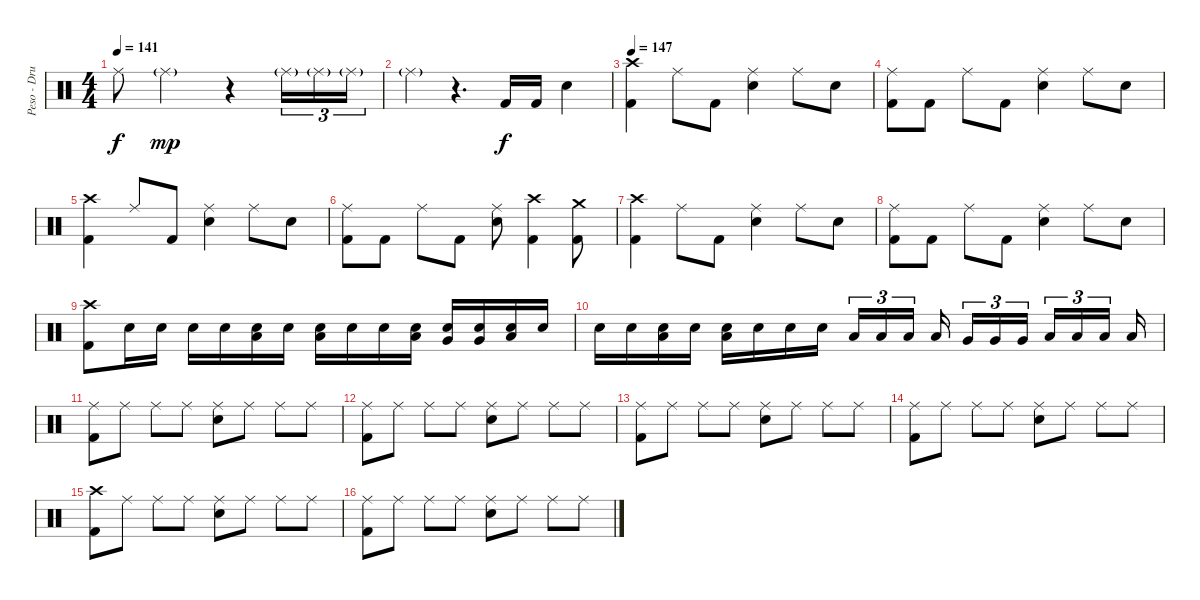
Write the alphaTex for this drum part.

\track ("Peso - Drums" "Peso - Dru") {instrument percussion}
\staff {score}
\articulation defaults
\ts (4 4)
\tempo 141
\clef neutral
\ks c "Ride (middle)"{t}.8{dy f} "Ride (middle)"{g}.2{dy mp}
r.4 "Ride (middle)"{g}.16{tu (3 2)} "Ride (middle)"{g}.16{tu (3 2)} "Ride (middle)"{g}.16{tu (3 2)} |
"Ride (middle)"{g}.4 r.4{d} "Kick (hit) 2".16{dy f} "Kick (hit) 2".16 "Electric Snare (hit)".4 |
\tempo 147
("Crash high (hit)" "Kick (hit) 2").4 "Ride (middle)".8 "Kick (hit) 2".8 ("Ride (middle)" "Electric Snare (hit)").4 "Ride (middle)".8 "Electric Snare (hit)".8 |
("Ride (middle)" "Kick (hit) 2").8 "Kick (hit) 2".8 "Ride (middle)".8 "Kick (hit) 2".8 ("Ride (middle)" "Electric Snare (hit)").4 "Ride (middle)".8 "Electric Snare (hit)".8 |
("Crash high (hit)" "Kick (hit) 2").4 "Ride (middle)".8{beam Up} "Kick (hit) 2".8{beam Up} ("Ride (middle)" "Electric Snare (hit)").4 "Ride (middle)".8 "Electric Snare (hit)".8 |
("Ride (middle)" "Kick (hit) 2").8 "Kick (hit) 2".8 "Ride (middle)".8 "Kick (hit) 2".8 ("Ride (middle)" "Electric Snare (hit)").8 ("Crash high (hit)" "Kick (hit) 2").4 ("Crash medium (hit)" "Kick (hit) 2").8 |
("Crash high (hit)" "Kick (hit) 2").4 "Ride (middle)".8 "Kick (hit) 2".8 ("Ride (middle)" "Electric Snare (hit)").4 "Ride (middle)".8 "Electric Snare (hit)".8 |
("Ride (middle)" "Kick (hit) 2").8 "Kick (hit) 2".8 "Ride (middle)".8 "Kick (hit) 2".8 ("Ride (middle)" "Electric Snare (hit)").4 "Ride (middle)".8 "Electric Snare (hit)".8 |
("Crash high (hit)" "Kick (hit) 2").8 "Electric Snare (hit)".16 "Electric Snare (hit)".16 "Electric Snare (hit)".16 "Electric Snare (hit)".16 ("Low Tom (hit)" "Electric Snare (hit)").16 "Electric Snare (hit)".16 ("Low Tom (hit)" "Electric Snare (hit)").16 "Electric Snare (hit)".16 "Electric Snare (hit)".16 ("Low Tom (hit)" "Electric Snare (hit)").16 ("Electric Snare (hit)" "Very Low Tom (hit)").16 ("Electric Snare (hit)" "Very Low Tom (hit)").16 ("Electric Snare (hit)" "Low Floor Tom (hit)").16 "Electric Snare (hit)".16 |
"Electric Snare (hit)".16 "Electric Snare (hit)".16 ("Low Tom (hit)" "Electric Snare (hit)").16 "Electric Snare (hit)".16 ("Low Tom (hit)" "Electric Snare (hit)").16 "Electric Snare (hit)".16 "Electric Snare (hit)".16 "Electric Snare (hit)".16 "Low Tom (hit)".16{tu (3 2)} "Low Tom (hit)".16{tu (3 2)} "Low Tom (hit)".16{tu (3 2) beam splitsecondary} "Low Tom (hit)".16{beam splitsecondary} "Very Low Tom (hit)".16{tu (3 2)} "Very Low Tom (hit)".16{tu (3 2)} "Very Low Tom (hit)".16{tu (3 2) beam splitsecondary} "Low Floor Tom (hit)".16{tu (3 2)} "Low Floor Tom (hit)".16{tu (3 2)} "Low Floor Tom (hit)".16{tu (3 2) beam splitsecondary} "Low Floor Tom (hit)".16 |
("Ride (middle)" "Kick (hit) 2").8 "Ride (middle)".8 "Ride (middle)".8 "Ride (middle)".8 ("Ride (middle)" "Electric Snare (hit)").8 "Ride (middle)".8 "Ride (middle)".8 "Ride (middle)".8 |
("Ride (middle)" "Kick (hit) 2").8 "Ride (middle)".8 "Ride (middle)".8 "Ride (middle)".8 ("Ride (middle)" "Electric Snare (hit)").8 "Ride (middle)".8 "Ride (middle)".8 "Ride (middle)".8 |
("Ride (middle)" "Kick (hit) 2").8 "Ride (middle)".8 "Ride (middle)".8 "Ride (middle)".8 ("Ride (middle)" "Electric Snare (hit)").8 "Ride (middle)".8 "Ride (middle)".8 "Ride (middle)".8 |
("Ride (middle)" "Kick (hit) 2").8 "Ride (middle)".8 "Ride (middle)".8 "Ride (middle)".8 ("Ride (middle)" "Electric Snare (hit)").8 "Ride (middle)".8 "Ride (middle)".8 "Ride (middle)".8 |
("Crash high (hit)" "Kick (hit) 2").8 "Ride (middle)".8 "Ride (middle)".8 "Ride (middle)".8 ("Ride (middle)" "Electric Snare (hit)").8 "Ride (middle)".8 "Ride (middle)".8 "Ride (middle)".8 |
("Ride (middle)" "Kick (hit) 2").8 "Ride (middle)".8 "Ride (middle)".8 "Ride (middle)".8 ("Ride (middle)" "Electric Snare (hit)").8 "Ride (middle)".8 "Ride (middle)".8 "Ride (middle)".8
